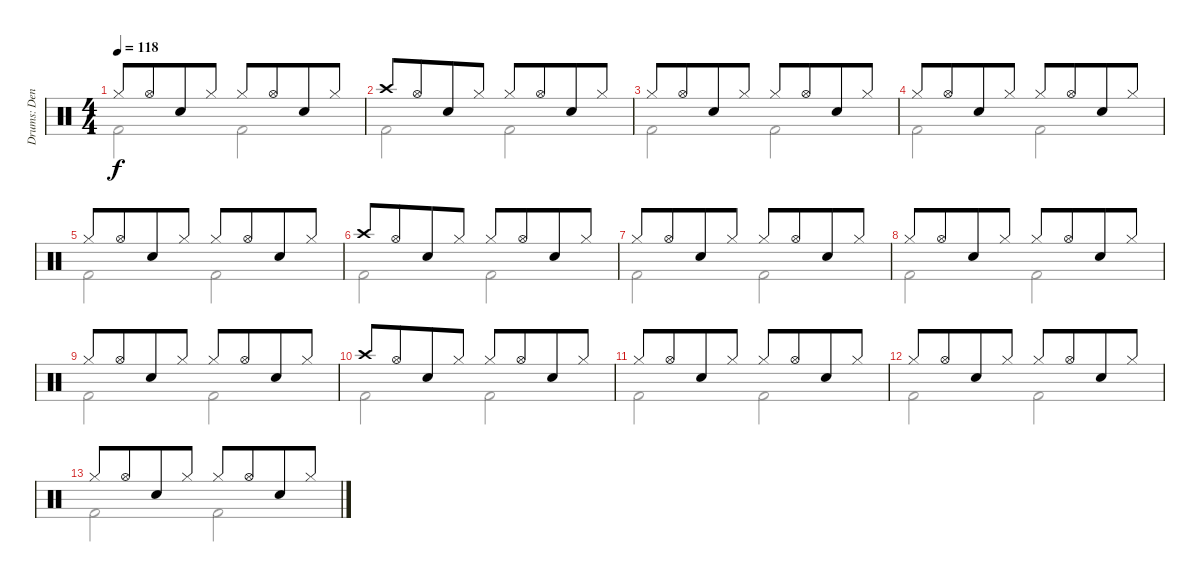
\track ("Drums: Denny" "Drums: Den") {instrument percussion}
\staff {score}
\articulation defaults
\voice
\ts (4 4)
\tempo 118
\clef neutral
\ks c "Hi-Hat (closed)".8{dy f} "Hi-Hat (open)".8{beam merge} "Snare (hit) 2".8 "Hi-Hat (closed)".8 "Hi-Hat (closed)".8 "Hi-Hat (open)".8{beam merge} "Snare (hit) 2".8 "Hi-Hat (closed)".8
|
"Crash high (hit)".8 "Hi-Hat (open)".8{beam merge} "Snare (hit) 2".8 "Hi-Hat (closed)".8 "Hi-Hat (closed)".8 "Hi-Hat (open)".8{beam merge} "Snare (hit) 2".8 "Hi-Hat (closed)".8 |
"Hi-Hat (closed)".8 "Hi-Hat (open)".8{beam merge} "Snare (hit) 2".8 "Hi-Hat (closed)".8 "Hi-Hat (closed)".8 "Hi-Hat (open)".8{beam merge} "Snare (hit) 2".8 "Hi-Hat (closed)".8 |
"Hi-Hat (closed)".8 "Hi-Hat (open)".8{beam merge} "Snare (hit) 2".8 "Hi-Hat (closed)".8 "Hi-Hat (closed)".8 "Hi-Hat (open)".8{beam merge} "Snare (hit) 2".8 "Hi-Hat (closed)".8 |
"Hi-Hat (closed)".8 "Hi-Hat (open)".8{beam merge} "Snare (hit) 2".8 "Hi-Hat (closed)".8 "Hi-Hat (closed)".8 "Hi-Hat (open)".8{beam merge} "Snare (hit) 2".8 "Hi-Hat (closed)".8 |
"Crash high (hit)".8{volume 8} "Hi-Hat (open)".8{beam merge} "Snare (hit) 2".8 "Hi-Hat (closed)".8 "Hi-Hat (closed)".8 "Hi-Hat (open)".8{beam merge} "Snare (hit) 2".8 "Hi-Hat (closed)".8 |
"Hi-Hat (closed)".8 "Hi-Hat (open)".8{beam merge} "Snare (hit) 2".8 "Hi-Hat (closed)".8 "Hi-Hat (closed)".8 "Hi-Hat (open)".8{beam merge} "Snare (hit) 2".8 "Hi-Hat (closed)".8 |
"Hi-Hat (closed)".8 "Hi-Hat (open)".8{beam merge} "Snare (hit) 2".8 "Hi-Hat (closed)".8 "Hi-Hat (closed)".8 "Hi-Hat (open)".8{beam merge} "Snare (hit) 2".8 "Hi-Hat (closed)".8 |
"Hi-Hat (closed)".8 "Hi-Hat (open)".8{beam merge} "Snare (hit) 2".8 "Hi-Hat (closed)".8 "Hi-Hat (closed)".8 "Hi-Hat (open)".8{beam merge} "Snare (hit) 2".8 "Hi-Hat (closed)".8 |
"Crash high (hit)".8{volume 0} "Hi-Hat (open)".8{beam merge} "Snare (hit) 2".8 "Hi-Hat (closed)".8 "Hi-Hat (closed)".8 "Hi-Hat (open)".8{beam merge} "Snare (hit) 2".8 "Hi-Hat (closed)".8 |
"Hi-Hat (closed)".8 "Hi-Hat (open)".8{beam merge} "Snare (hit) 2".8 "Hi-Hat (closed)".8 "Hi-Hat (closed)".8 "Hi-Hat (open)".8{beam merge} "Snare (hit) 2".8 "Hi-Hat (closed)".8 |
"Hi-Hat (closed)".8 "Hi-Hat (open)".8{beam merge} "Snare (hit) 2".8 "Hi-Hat (closed)".8 "Hi-Hat (closed)".8 "Hi-Hat (open)".8{beam merge} "Snare (hit) 2".8 "Hi-Hat (closed)".8 |
"Hi-Hat (closed)".8 "Hi-Hat (open)".8{beam merge} "Snare (hit) 2".8 "Hi-Hat (closed)".8 "Hi-Hat (closed)".8 "Hi-Hat (open)".8{beam merge} "Snare (hit) 2".8 "Hi-Hat (closed)".8
\voice
\clef neutral
\ottava regular
\simile none
\ks c "Kick (hit) 2".2{dy f} "Kick (hit) 2".2
|
"Kick (hit) 2".2 "Kick (hit) 2".2 |
"Kick (hit) 2".2 "Kick (hit) 2".2 |
"Kick (hit) 2".2 "Kick (hit) 2".2 |
"Kick (hit) 2".2 "Kick (hit) 2".2 |
"Kick (hit) 2".2 "Kick (hit) 2".2 |
"Kick (hit) 2".2 "Kick (hit) 2".2 |
"Kick (hit) 2".2 "Kick (hit) 2".2 |
"Kick (hit) 2".2 "Kick (hit) 2".2 |
"Kick (hit) 2".2 "Kick (hit) 2".2 |
"Kick (hit) 2".2 "Kick (hit) 2".2 |
"Kick (hit) 2".2 "Kick (hit) 2".2 |
"Kick (hit) 2".2 "Kick (hit) 2".2
